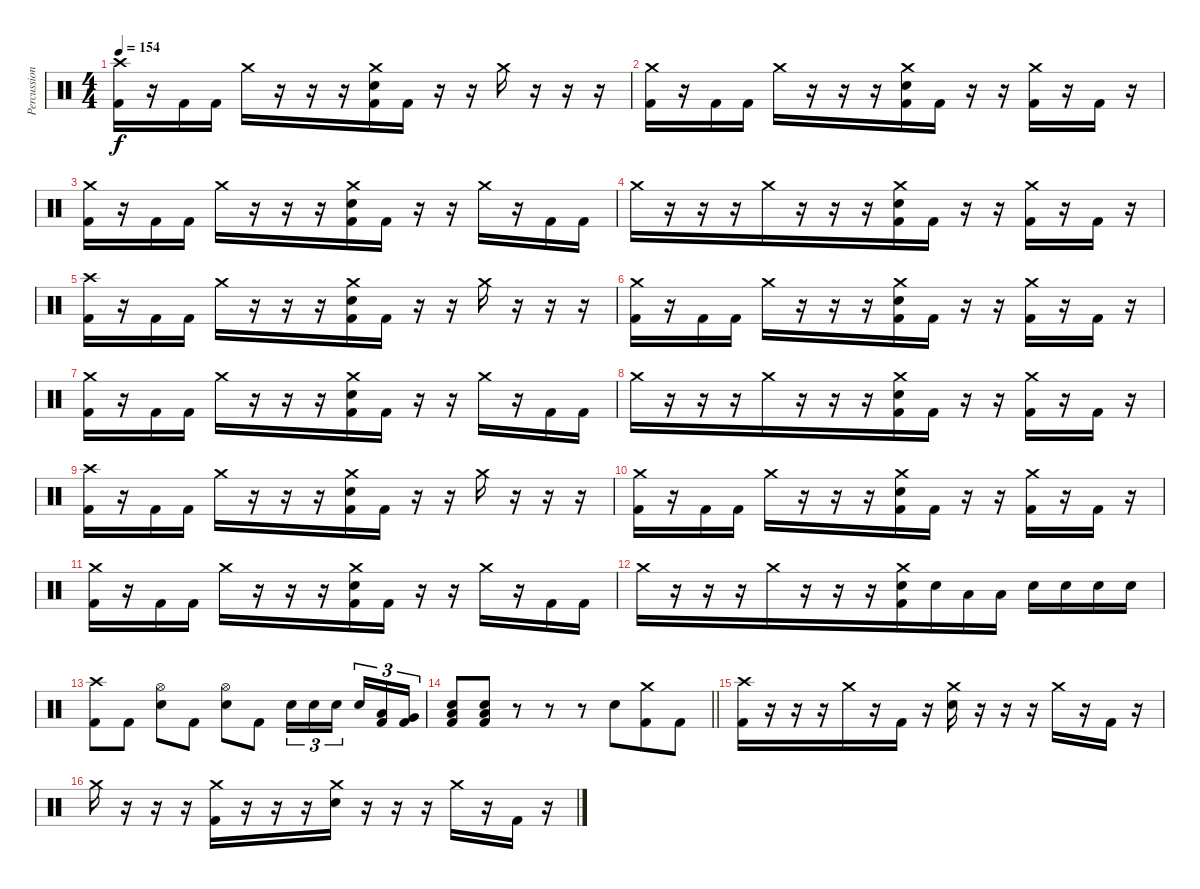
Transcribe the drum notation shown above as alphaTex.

\track ("Percussion" "Percussion") {instrument percussion}
\staff {score}
\articulation defaults
\ts (4 4)
\tempo 154
\clef neutral
\ks c
("Crash high (hit)" "Kick (hit) 2").16{dy f beam merge} r.16 "Kick (hit) 2".16{beam merge} "Kick (hit) 2".16 "Crash medium (hit)".16{beam merge} r.16 r.16{beam merge} r.16{beam merge} ("Crash medium (hit)" "Electric Snare (hit)" "Kick (hit) 2").16 "Kick (hit) 2".16 r.16 r.16 "Crash medium (hit)".16 r.16{beam merge} r.16 r.16 |
("Crash medium (hit)" "Kick (hit) 2").16{beam merge} r.16 "Kick (hit) 2".16{beam merge} "Kick (hit) 2".16 "Crash medium (hit)".16{beam merge} r.16 r.16{beam merge} r.16{beam merge} ("Crash medium (hit)" "Electric Snare (hit)" "Kick (hit) 2").16 "Kick (hit) 2".16 r.16 r.16 ("Crash medium (hit)" "Kick (hit) 2").16 r.16{beam merge} "Kick (hit) 2".16 r.16 |
("Crash medium (hit)" "Kick (hit) 2").16{beam merge} r.16 "Kick (hit) 2".16{beam merge} "Kick (hit) 2".16 "Crash medium (hit)".16{beam merge} r.16 r.16{beam merge} r.16{beam merge} ("Crash medium (hit)" "Electric Snare (hit)" "Kick (hit) 2").16 "Kick (hit) 2".16 r.16 r.16 "Crash medium (hit)".16 r.16{beam merge} "Kick (hit) 2".16 "Kick (hit) 2".16 |
"Crash medium (hit)".16{beam merge} r.16 r.16{beam merge} r.16 "Crash medium (hit)".16{beam merge} r.16 r.16{beam merge} r.16{beam merge} ("Crash medium (hit)" "Electric Snare (hit)" "Kick (hit) 2").16 "Kick (hit) 2".16 r.16 r.16 ("Crash medium (hit)" "Kick (hit) 2").16 r.16{beam merge} "Kick (hit) 2".16 r.16 |
("Crash high (hit)" "Kick (hit) 2").16{beam merge} r.16 "Kick (hit) 2".16{beam merge} "Kick (hit) 2".16 "Crash medium (hit)".16{beam merge} r.16 r.16{beam merge} r.16{beam merge} ("Crash medium (hit)" "Electric Snare (hit)" "Kick (hit) 2").16 "Kick (hit) 2".16 r.16 r.16 "Crash medium (hit)".16 r.16{beam merge} r.16 r.16 |
("Crash medium (hit)" "Kick (hit) 2").16{beam merge} r.16 "Kick (hit) 2".16{beam merge} "Kick (hit) 2".16 "Crash medium (hit)".16{beam merge} r.16 r.16{beam merge} r.16{beam merge} ("Crash medium (hit)" "Electric Snare (hit)" "Kick (hit) 2").16 "Kick (hit) 2".16 r.16 r.16 ("Crash medium (hit)" "Kick (hit) 2").16 r.16{beam merge} "Kick (hit) 2".16 r.16 |
("Crash medium (hit)" "Kick (hit) 2").16{beam merge} r.16 "Kick (hit) 2".16{beam merge} "Kick (hit) 2".16 "Crash medium (hit)".16{beam merge} r.16 r.16{beam merge} r.16{beam merge} ("Crash medium (hit)" "Electric Snare (hit)" "Kick (hit) 2").16 "Kick (hit) 2".16 r.16 r.16 "Crash medium (hit)".16 r.16{beam merge} "Kick (hit) 2".16 "Kick (hit) 2".16 |
"Crash medium (hit)".16{beam merge} r.16 r.16{beam merge} r.16 "Crash medium (hit)".16{beam merge} r.16 r.16{beam merge} r.16{beam merge} ("Crash medium (hit)" "Electric Snare (hit)" "Kick (hit) 2").16 "Kick (hit) 2".16 r.16 r.16 ("Crash medium (hit)" "Kick (hit) 2").16 r.16{beam merge} "Kick (hit) 2".16 r.16 |
("Crash high (hit)" "Kick (hit) 2").16{beam merge} r.16 "Kick (hit) 2".16{beam merge} "Kick (hit) 2".16 "Crash medium (hit)".16{beam merge} r.16 r.16{beam merge} r.16{beam merge} ("Crash medium (hit)" "Electric Snare (hit)" "Kick (hit) 2").16 "Kick (hit) 2".16 r.16 r.16 "Crash medium (hit)".16 r.16{beam merge} r.16 r.16 |
("Crash medium (hit)" "Kick (hit) 2").16{beam merge} r.16 "Kick (hit) 2".16{beam merge} "Kick (hit) 2".16 "Crash medium (hit)".16{beam merge} r.16 r.16{beam merge} r.16{beam merge} ("Crash medium (hit)" "Electric Snare (hit)" "Kick (hit) 2").16 "Kick (hit) 2".16 r.16 r.16 ("Crash medium (hit)" "Kick (hit) 2").16 r.16{beam merge} "Kick (hit) 2".16 r.16 |
("Crash medium (hit)" "Kick (hit) 2").16{beam merge} r.16 "Kick (hit) 2".16{beam merge} "Kick (hit) 2".16 "Crash medium (hit)".16{beam merge} r.16 r.16{beam merge} r.16{beam merge} ("Crash medium (hit)" "Electric Snare (hit)" "Kick (hit) 2").16 "Kick (hit) 2".16 r.16 r.16 "Crash medium (hit)".16 r.16{beam merge} "Kick (hit) 2".16 "Kick (hit) 2".16 |
"Crash medium (hit)".16{beam merge} r.16 r.16{beam merge} r.16 "Crash medium (hit)".16{beam merge} r.16 r.16{beam merge} r.16{beam merge} ("Crash medium (hit)" "Electric Snare (hit)" "Kick (hit) 2").16 "Electric Snare (hit)".16 "Low Tom (hit)".16 "Low Floor Tom (hit)".16 "Electric Snare (hit)".16 "Electric Snare (hit)".16{beam merge} "Electric Snare (hit)".16 "Electric Snare (hit)".16 |
("Crash high (hit)" "Kick (hit) 2").8 "Kick (hit) 2".8 ("Hi-Hat (open)" "Electric Snare (hit)").8 "Kick (hit) 2".8 ("Hi-Hat (open)" "Electric Snare (hit)").8 "Kick (hit) 2".8 "Electric Snare (hit)".16{tu (3 2)} "Electric Snare (hit)".16{tu (3 2)} "Electric Snare (hit)".16{tu (3 2) beam splitsecondary} "Electric Snare (hit)".16{tu (3 2)} ("Low Tom (hit)" "Kick (hit) 2").16{tu (3 2)} ("Very Low Tom (hit)" "Kick (hit) 2").16{tu (3 2)} |
\barLineRight lightlight
("Electric Snare (hit)" "Low Floor Tom (hit)" "Kick (hit) 2").8 ("Electric Snare (hit)" "Low Floor Tom (hit)" "Kick (hit) 2").8 r.8 r.8 r.8 "Electric Snare (hit)".8{beam merge} ("Crash medium (hit)" "Kick (hit) 2").8{beam merge} "Kick (hit) 2".8 |
\section ("" "")
("Crash high (hit)" "Kick (hit) 2").16{beam merge} r.16{beam merge} r.16 r.16{beam merge} "Crash medium (hit)".16{beam merge} r.16 "Kick (hit) 2".16 r.16 ("Crash medium (hit)" "Electric Snare (hit)").16 r.16{beam merge} r.16 r.16 "Crash medium (hit)".16 r.16 "Kick (hit) 2".16 r.16 |
"Crash medium (hit)".16 r.16{beam merge} r.16{beam merge} r.16 ("Crash medium (hit)" "Kick (hit) 2").16{beam merge} r.16 r.16{beam merge} r.16 ("Crash medium (hit)" "Electric Snare (hit)").16 r.16 r.16 r.16{beam merge} "Crash medium (hit)".16 r.16{beam merge} "Kick (hit) 2".16 r.16
